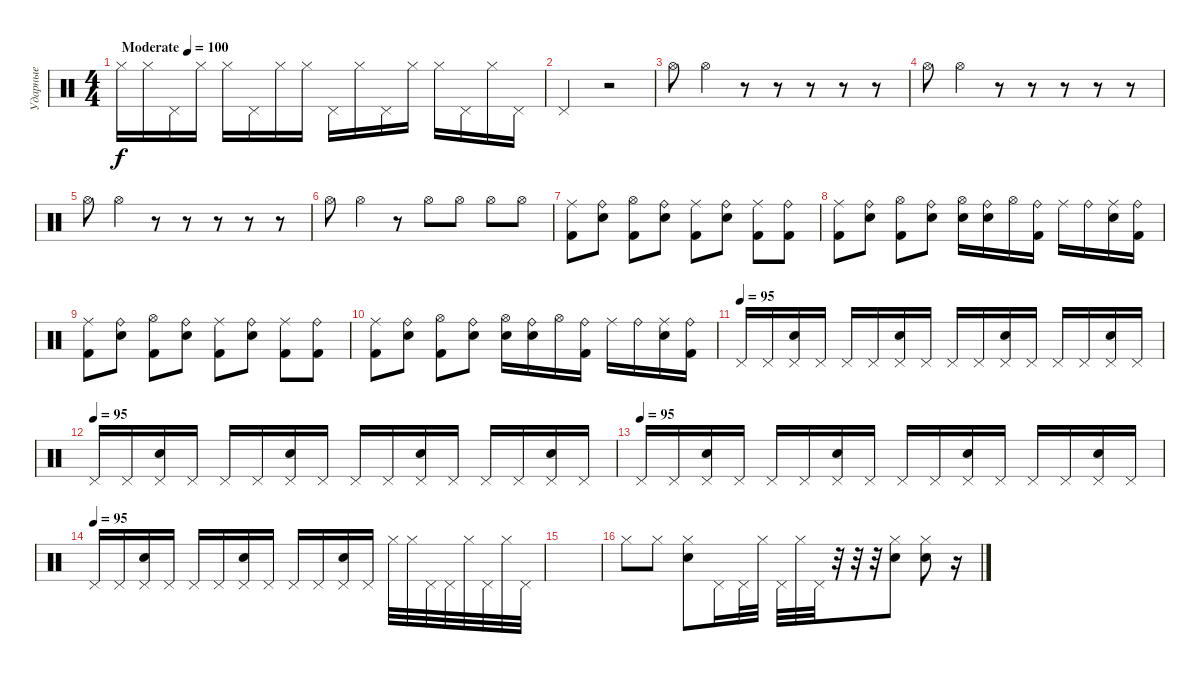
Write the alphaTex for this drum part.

\track ("Ударные" "Ударные") {instrument percussion}
\staff {score}
\articulation defaults
\ts (4 4)
\tempo (100 "Moderate")
\clef neutral
\ks c "Hi-Hat (closed)".16{dy f} "Hi-Hat (closed)".16 "Pedal Hi-Hat (hit)".16 "Hi-Hat (closed)".16 "Hi-Hat (closed)".16 "Pedal Hi-Hat (hit)".16 "Hi-Hat (closed)".16 "Hi-Hat (closed)".16 "Pedal Hi-Hat (hit)".16 "Hi-Hat (closed)".16 "Pedal Hi-Hat (hit)".16 "Hi-Hat (closed)".16 "Hi-Hat (closed)".16 "Pedal Hi-Hat (hit)".16 "Hi-Hat (closed)".16 "Pedal Hi-Hat (hit)".16
|
"Pedal Hi-Hat (hit)".2 r.2 |
"Hi-Hat (open)".8 "Hi-Hat (open)".4 r.8 r.8 r.8 r.8 r.8 |
"Hi-Hat (open)".8 "Hi-Hat (open)".4 r.8 r.8 r.8 r.8 r.8 |
"Hi-Hat (open)".8 "Hi-Hat (open)".4 r.8 r.8 r.8 r.8 r.8 |
"Hi-Hat (open)".8 "Hi-Hat (open)".4 r.8 "Hi-Hat (open)".8 "Hi-Hat (open)".8 "Hi-Hat (open)".8 "Hi-Hat (open)".8 |
("Ride (middle)" "Kick (hit) 2").8 ("Ride (bell)" "Snare (hit) 2").8 ("Hi-Hat (open)" "Kick (hit) 2").8 ("Ride (bell)" "Snare (hit) 2").8 ("Ride (middle)" "Kick (hit) 2").8 ("Ride (bell)" "Snare (hit) 2").8 ("Ride (middle)" "Kick (hit) 2").8 ("Ride (bell)" "Kick (hit) 2").8 |
("Ride (middle)" "Kick (hit) 2").8 ("Ride (bell)" "Snare (hit) 2").8 ("Hi-Hat (open)" "Kick (hit) 2").8 ("Ride (bell)" "Snare (hit) 2").8 ("Hi-Hat (open)" "Snare (hit) 2").16 ("Ride (bell)" "Snare (hit) 2").16 "Hi-Hat (open)".16 ("Ride (bell)" "Kick (hit) 2").16 "Ride (middle)".16 "Ride (bell)".16 ("Ride (middle)" "Snare (hit) 2").16 ("Ride (bell)" "Kick (hit) 2").16 |
("Ride (middle)" "Kick (hit) 2").8 ("Ride (bell)" "Snare (hit) 2").8 ("Hi-Hat (open)" "Kick (hit) 2").8 ("Ride (bell)" "Snare (hit) 2").8 ("Ride (middle)" "Kick (hit) 2").8 ("Ride (bell)" "Snare (hit) 2").8 ("Ride (middle)" "Kick (hit) 2").8 ("Ride (bell)" "Kick (hit) 2").8 |
("Ride (middle)" "Kick (hit) 2").8 ("Ride (bell)" "Snare (hit) 2").8 ("Hi-Hat (open)" "Kick (hit) 2").8 ("Ride (bell)" "Snare (hit) 2").8 ("Hi-Hat (open)" "Snare (hit) 2").16 ("Ride (bell)" "Snare (hit) 2").16 "Hi-Hat (open)".16 ("Ride (bell)" "Kick (hit) 2").16 "Ride (middle)".16 "Ride (bell)".16 ("Ride (middle)" "Snare (hit) 2").16 ("Ride (bell)" "Kick (hit) 2").16 |
\tempo (95)
"Pedal Hi-Hat (hit)".16 "Pedal Hi-Hat (hit)".16 ("Pedal Hi-Hat (hit)" "Snare (hit) 2").16 "Pedal Hi-Hat (hit)".16 "Pedal Hi-Hat (hit)".16 "Pedal Hi-Hat (hit)".16 ("Pedal Hi-Hat (hit)" "Snare (hit) 2").16 "Pedal Hi-Hat (hit)".16 "Pedal Hi-Hat (hit)".16 "Pedal Hi-Hat (hit)".16 ("Pedal Hi-Hat (hit)" "Snare (hit) 2").16 "Pedal Hi-Hat (hit)".16 "Pedal Hi-Hat (hit)".16 "Pedal Hi-Hat (hit)".16 ("Pedal Hi-Hat (hit)" "Snare (hit) 2").16 "Pedal Hi-Hat (hit)".16 |
\tempo (95)
"Pedal Hi-Hat (hit)".16 "Pedal Hi-Hat (hit)".16 ("Pedal Hi-Hat (hit)" "Snare (hit) 2").16 "Pedal Hi-Hat (hit)".16 "Pedal Hi-Hat (hit)".16 "Pedal Hi-Hat (hit)".16 ("Pedal Hi-Hat (hit)" "Snare (hit) 2").16 "Pedal Hi-Hat (hit)".16 "Pedal Hi-Hat (hit)".16 "Pedal Hi-Hat (hit)".16 ("Pedal Hi-Hat (hit)" "Snare (hit) 2").16 "Pedal Hi-Hat (hit)".16 "Pedal Hi-Hat (hit)".16 "Pedal Hi-Hat (hit)".16 ("Pedal Hi-Hat (hit)" "Snare (hit) 2").16 "Pedal Hi-Hat (hit)".16 |
\tempo (95)
"Pedal Hi-Hat (hit)".16 "Pedal Hi-Hat (hit)".16 ("Pedal Hi-Hat (hit)" "Snare (hit) 2").16 "Pedal Hi-Hat (hit)".16 "Pedal Hi-Hat (hit)".16 "Pedal Hi-Hat (hit)".16 ("Pedal Hi-Hat (hit)" "Snare (hit) 2").16 "Pedal Hi-Hat (hit)".16 "Pedal Hi-Hat (hit)".16 "Pedal Hi-Hat (hit)".16 ("Pedal Hi-Hat (hit)" "Snare (hit) 2").16 "Pedal Hi-Hat (hit)".16 "Pedal Hi-Hat (hit)".16 "Pedal Hi-Hat (hit)".16 ("Pedal Hi-Hat (hit)" "Snare (hit) 2").16 "Pedal Hi-Hat (hit)".16 |
\tempo (95)
"Pedal Hi-Hat (hit)".16 "Pedal Hi-Hat (hit)".16 ("Pedal Hi-Hat (hit)" "Snare (hit) 2").16 "Pedal Hi-Hat (hit)".16 "Pedal Hi-Hat (hit)".16 "Pedal Hi-Hat (hit)".16 ("Pedal Hi-Hat (hit)" "Snare (hit) 2").16 "Pedal Hi-Hat (hit)".16 "Pedal Hi-Hat (hit)".16 "Pedal Hi-Hat (hit)".16 ("Pedal Hi-Hat (hit)" "Snare (hit) 2").16 "Pedal Hi-Hat (hit)".16 "Hi-Hat (closed)".32 "Hi-Hat (closed)".32 "Pedal Hi-Hat (hit)".32 "Pedal Hi-Hat (hit)".32 "Hi-Hat (closed)".32 "Pedal Hi-Hat (hit)".32 "Hi-Hat (closed)".32 "Pedal Hi-Hat (hit)".32 |
|
"Hi-Hat (closed)".8 "Hi-Hat (closed)".8 ("Snare (hit) 2" "Hi-Hat (closed)").8 "Pedal Hi-Hat (hit)".16 "Pedal Hi-Hat (hit)".32 "Hi-Hat (closed)".32 "Pedal Hi-Hat (hit)".32 "Hi-Hat (closed)".32 "Pedal Hi-Hat (hit)".32 r.32 r.32 r.32 ("Snare (hit) 2" "Hi-Hat (closed)").8 ("Snare (hit) 2" "Hi-Hat (closed)").8 r.16
